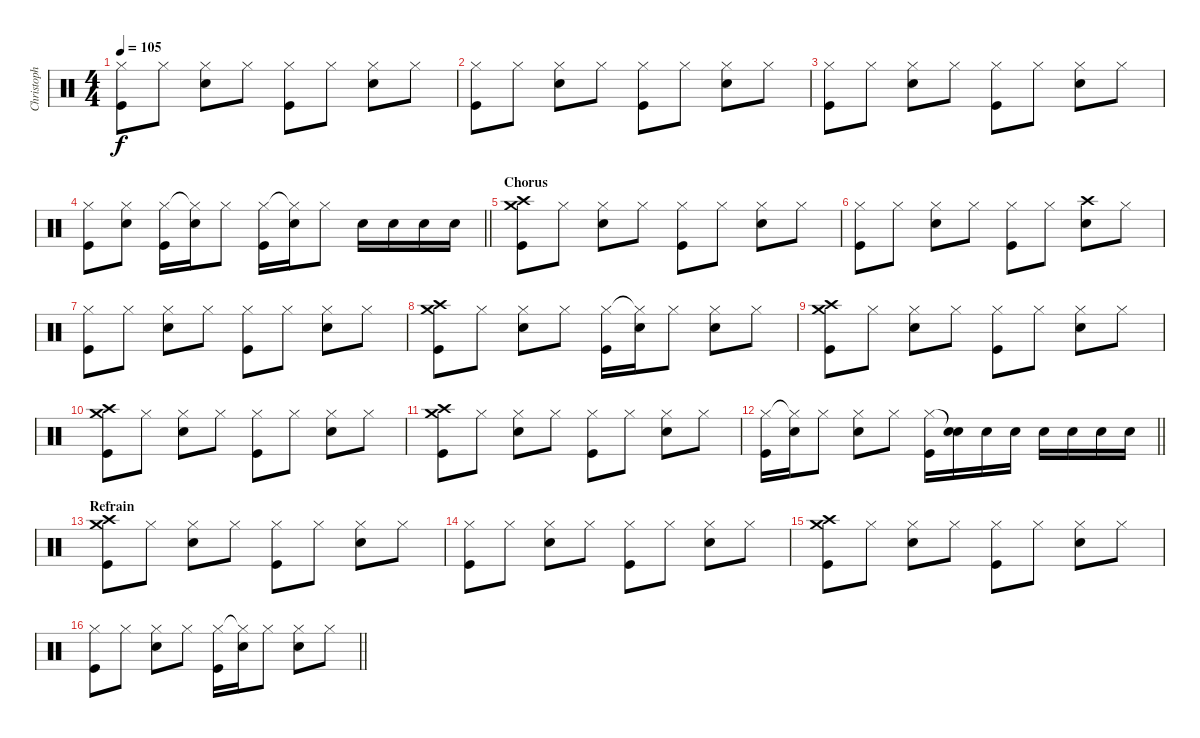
\track ("Christoph Schneider" "Christoph ") {instrument percussion}
\staff {score}
\articulation defaults
\ts (4 4)
\tempo 105
\clef neutral
\ks c
("Hi-Hat (closed)" "Kick (hit)").8{dy f} "Hi-Hat (closed)".8 ("Hi-Hat (closed)" "Snare (hit) 2").8 "Hi-Hat (closed)".8 ("Hi-Hat (closed)" "Kick (hit)").8 "Hi-Hat (closed)".8 ("Hi-Hat (closed)" "Snare (hit) 2").8 "Hi-Hat (closed)".8 |
("Hi-Hat (closed)" "Kick (hit)").8 "Hi-Hat (closed)".8 ("Hi-Hat (closed)" "Snare (hit) 2").8 "Hi-Hat (closed)".8 ("Hi-Hat (closed)" "Kick (hit)").8 "Hi-Hat (closed)".8 ("Hi-Hat (closed)" "Snare (hit) 2").8 "Hi-Hat (closed)".8 |
("Hi-Hat (closed)" "Kick (hit)").8 "Hi-Hat (closed)".8 ("Hi-Hat (closed)" "Snare (hit) 2").8 "Hi-Hat (closed)".8 ("Hi-Hat (closed)" "Kick (hit)").8 "Hi-Hat (closed)".8 ("Hi-Hat (closed)" "Snare (hit) 2").8 "Hi-Hat (closed)".8 |
\barLineRight lightlight
("Hi-Hat (closed)" "Kick (hit)").8 ("Hi-Hat (closed)" "Snare (hit) 2").8 ("Hi-Hat (closed)" "Kick (hit)").16 ("Hi-Hat (closed)"{t} "Snare (hit) 2").16 "Hi-Hat (closed)".8 ("Hi-Hat (closed)" "Kick (hit)").16 ("Hi-Hat (closed)"{t} "Snare (hit) 2").16 "Hi-Hat (closed)".8 "Snare (hit) 2".16 "Snare (hit) 2".16 "Snare (hit) 2".16 "Snare (hit) 2".16 |
\section ("" "Chorus")
("Crash medium (hit)" "Crash high (hit)" "Kick (hit)").8 "Hi-Hat (closed)".8 ("Hi-Hat (closed)" "Snare (hit) 2").8 "Hi-Hat (closed)".8 ("Hi-Hat (closed)" "Kick (hit)").8 "Hi-Hat (closed)".8 ("Hi-Hat (closed)" "Snare (hit) 2").8 "Hi-Hat (closed)".8 |
("Hi-Hat (closed)" "Kick (hit)").8 "Hi-Hat (closed)".8 ("Hi-Hat (closed)" "Snare (hit) 2").8 "Hi-Hat (closed)".8 ("Hi-Hat (closed)" "Kick (hit)").8 "Hi-Hat (closed)".8 ("Crash high (hit)" "Snare (hit) 2").8 "Hi-Hat (closed)".8 |
("Hi-Hat (closed)" "Kick (hit)").8 "Hi-Hat (closed)".8 ("Hi-Hat (closed)" "Snare (hit) 2").8 "Hi-Hat (closed)".8 ("Hi-Hat (closed)" "Kick (hit)").8 "Hi-Hat (closed)".8 ("Hi-Hat (closed)" "Snare (hit) 2").8 "Hi-Hat (closed)".8 |
("Crash high (hit)" "Crash medium (hit)" "Kick (hit)").8 "Hi-Hat (closed)".8 ("Hi-Hat (closed)" "Snare (hit) 2").8 "Hi-Hat (closed)".8 ("Hi-Hat (closed)" "Kick (hit)").16 ("Hi-Hat (closed)"{t} "Snare (hit) 2").16 "Hi-Hat (closed)".8 ("Hi-Hat (closed)" "Snare (hit) 2").8 "Hi-Hat (closed)".8 |
("Crash medium (hit)" "Crash high (hit)" "Kick (hit)").8 "Hi-Hat (closed)".8 ("Hi-Hat (closed)" "Snare (hit) 2").8 "Hi-Hat (closed)".8 ("Hi-Hat (closed)" "Kick (hit)").8 "Hi-Hat (closed)".8 ("Hi-Hat (closed)" "Snare (hit) 2").8 "Hi-Hat (closed)".8 |
("Crash medium (hit)" "Crash high (hit)" "Kick (hit)").8 "Hi-Hat (closed)".8 ("Hi-Hat (closed)" "Snare (hit) 2").8 "Hi-Hat (closed)".8 ("Hi-Hat (closed)" "Kick (hit)").8 "Hi-Hat (closed)".8 ("Hi-Hat (closed)" "Snare (hit) 2").8 "Hi-Hat (closed)".8 |
("Crash medium (hit)" "Crash high (hit)" "Kick (hit)").8 "Hi-Hat (closed)".8 ("Hi-Hat (closed)" "Snare (hit) 2").8 "Hi-Hat (closed)".8 ("Hi-Hat (closed)" "Kick (hit)").8 "Hi-Hat (closed)".8 ("Hi-Hat (closed)" "Snare (hit) 2").8 "Hi-Hat (closed)".8 |
\barLineRight lightlight
("Hi-Hat (closed)" "Kick (hit)").16 ("Hi-Hat (closed)"{t} "Snare (hit) 2").16 "Hi-Hat (closed)".8 ("Hi-Hat (closed)" "Snare (hit) 2").8 "Hi-Hat (closed)".8 ("Hi-Hat (closed)" "Kick (hit)").16 ("Snare (hit)"{t} "Snare (hit) 2").16 "Snare (hit) 2".16 "Snare (hit) 2".16 "Snare (hit) 2".16 "Snare (hit) 2".16 "Snare (hit) 2".16 "Snare (hit) 2".16 |
\section ("" "Refrain")
("Crash medium (hit)" "Crash high (hit)" "Kick (hit)").8 "Hi-Hat (closed)".8 ("Hi-Hat (closed)" "Snare (hit) 2").8 "Hi-Hat (closed)".8 ("Hi-Hat (closed)" "Kick (hit)").8 "Hi-Hat (closed)".8 ("Hi-Hat (closed)" "Snare (hit) 2").8 "Hi-Hat (closed)".8 |
("Hi-Hat (closed)" "Kick (hit)").8 "Hi-Hat (closed)".8 ("Hi-Hat (closed)" "Snare (hit) 2").8 "Hi-Hat (closed)".8 ("Hi-Hat (closed)" "Kick (hit)").8 "Hi-Hat (closed)".8 ("Hi-Hat (closed)" "Snare (hit) 2").8 "Hi-Hat (closed)".8 |
("Crash medium (hit)" "Crash high (hit)" "Kick (hit)").8 "Hi-Hat (closed)".8 ("Hi-Hat (closed)" "Snare (hit) 2").8 "Hi-Hat (closed)".8 ("Hi-Hat (closed)" "Kick (hit)").8 "Hi-Hat (closed)".8 ("Hi-Hat (closed)" "Snare (hit) 2").8 "Hi-Hat (closed)".8 |
\barLineRight lightlight
("Hi-Hat (closed)" "Kick (hit)").8 "Hi-Hat (closed)".8 ("Hi-Hat (closed)" "Snare (hit) 2").8 "Hi-Hat (closed)".8 ("Hi-Hat (closed)" "Kick (hit)").16 ("Hi-Hat (closed)"{t} "Snare (hit) 2").16 "Hi-Hat (closed)".8 ("Hi-Hat (closed)" "Snare (hit) 2").8 "Hi-Hat (closed)".8
